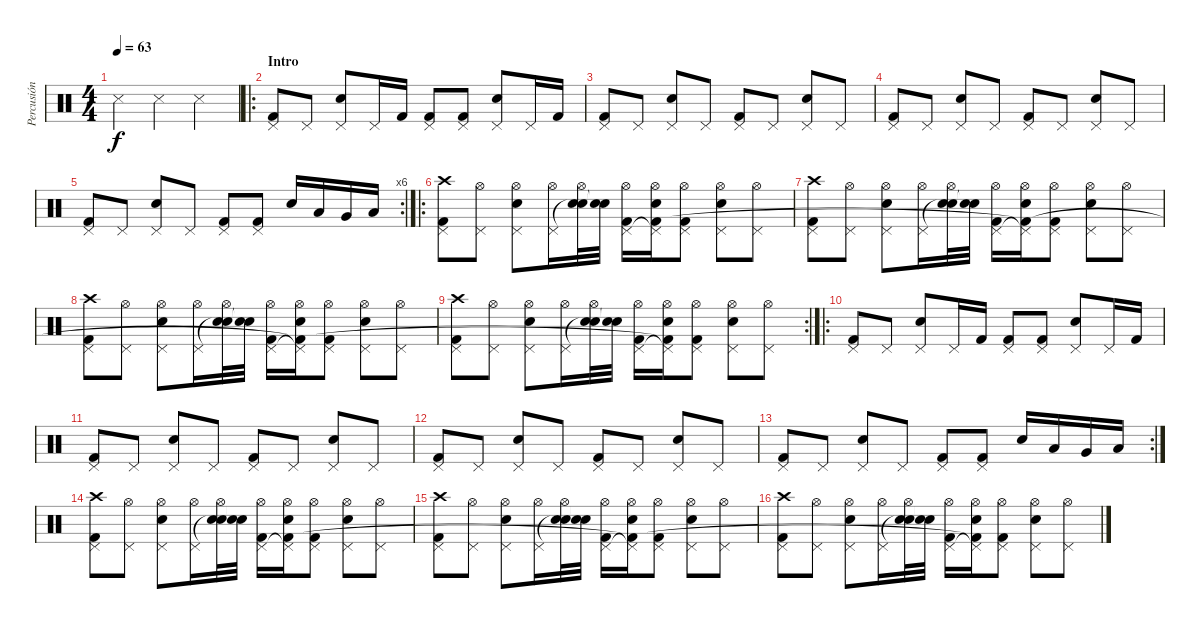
\track ("Percusión" "Percusión") {instrument percussion}
\staff {score}
\articulation defaults
\ts (4 4)
\tempo 63
\clef neutral
\ks c "Metronome (hit)".4{dy f} "Metronome (hit)".4 "Metronome (hit)".4
|
\ro
\section ("" "Intro")
("Pedal Hi-Hat (hit)" "Kick (hit) 2").8 "Pedal Hi-Hat (hit)".8 ("Pedal Hi-Hat (hit)" "Electric Snare (hit)").8 "Pedal Hi-Hat (hit)".16 "Kick (hit) 2".16 ("Pedal Hi-Hat (hit)" "Kick (hit) 2").8 ("Pedal Hi-Hat (hit)" "Kick (hit) 2").8 ("Pedal Hi-Hat (hit)" "Electric Snare (hit)").8 "Pedal Hi-Hat (hit)".16 "Kick (hit) 2".16 |
("Pedal Hi-Hat (hit)" "Kick (hit) 2").8 "Pedal Hi-Hat (hit)".8 ("Pedal Hi-Hat (hit)" "Electric Snare (hit)").8 "Pedal Hi-Hat (hit)".8 ("Pedal Hi-Hat (hit)" "Kick (hit) 2").8 "Pedal Hi-Hat (hit)".8 ("Pedal Hi-Hat (hit)" "Electric Snare (hit)").8 "Pedal Hi-Hat (hit)".8 |
("Pedal Hi-Hat (hit)" "Kick (hit) 2").8 "Pedal Hi-Hat (hit)".8 ("Pedal Hi-Hat (hit)" "Electric Snare (hit)").8 "Pedal Hi-Hat (hit)".8 ("Pedal Hi-Hat (hit)" "Kick (hit) 2").8 "Pedal Hi-Hat (hit)".8 ("Pedal Hi-Hat (hit)" "Electric Snare (hit)").8 "Pedal Hi-Hat (hit)".8 |
\rc 6
("Pedal Hi-Hat (hit)" "Kick (hit) 2").8 "Pedal Hi-Hat (hit)".8 ("Pedal Hi-Hat (hit)" "Electric Snare (hit)").8 "Pedal Hi-Hat (hit)".8 ("Pedal Hi-Hat (hit)" "Kick (hit) 2").8 ("Pedal Hi-Hat (hit)" "Kick (hit) 2").8 "Electric Snare (hit)".16 "Low Tom (hit)".16 "Very Low Tom (hit)".16 "Low Floor Tom (hit)".16 |
\ro
("Pedal Hi-Hat (hit)" "Crash high (hit)" "Kick (hit) 2").8 ("Pedal Hi-Hat (hit)" "Hi-Hat (open)").8 ("Pedal Hi-Hat (hit)" "Electric Snare (hit)" "Hi-Hat (open)").8 ("Pedal Hi-Hat (hit)" "Hi-Hat (open)").16 ("Snare (hit)"{t} "Electric Snare (hit)" "Hi-Hat (open)").32 ("Snare (hit)"{t} "Electric Snare (hit)").32 ("Pedal Hi-Hat (hit)" "Hi-Hat (open)" "Kick (hit) 2").16 ("Pedal Hi-Hat (hit)"{t} "Electric Snare (hit)" "Hi-Hat (open)" "Kick (hit) 2").16 ("Pedal Hi-Hat (hit)" "Hi-Hat (open)" "Kick (hit) 2").8 ("Pedal Hi-Hat (hit)" "Electric Snare (hit)" "Hi-Hat (open)").8 ("Pedal Hi-Hat (hit)" "Hi-Hat (open)").8 |
("Pedal Hi-Hat (hit)" "Crash high (hit)" "Kick (hit) 2").8 ("Pedal Hi-Hat (hit)" "Hi-Hat (open)").8 ("Pedal Hi-Hat (hit)" "Electric Snare (hit)" "Hi-Hat (open)").8 ("Pedal Hi-Hat (hit)" "Hi-Hat (open)").16 ("Snare (hit)"{t} "Electric Snare (hit)" "Hi-Hat (open)").32 ("Snare (hit)"{t} "Electric Snare (hit)").32 ("Pedal Hi-Hat (hit)" "Hi-Hat (open)" "Kick (hit) 2").16 ("Pedal Hi-Hat (hit)"{t} "Electric Snare (hit)" "Hi-Hat (open)" "Kick (hit) 2"{t}).16 ("Pedal Hi-Hat (hit)" "Hi-Hat (open)" "Kick (hit) 2").8 ("Pedal Hi-Hat (hit)" "Electric Snare (hit)" "Hi-Hat (open)").8 ("Pedal Hi-Hat (hit)" "Hi-Hat (open)").8 |
("Pedal Hi-Hat (hit)" "Crash high (hit)" "Kick (hit) 2").8 ("Pedal Hi-Hat (hit)" "Hi-Hat (open)").8 ("Pedal Hi-Hat (hit)" "Electric Snare (hit)" "Hi-Hat (open)").8 ("Pedal Hi-Hat (hit)" "Hi-Hat (open)").16 ("Snare (hit)"{t} "Electric Snare (hit)" "Hi-Hat (open)").32 ("Snare (hit)"{t} "Electric Snare (hit)").32 ("Pedal Hi-Hat (hit)" "Hi-Hat (open)" "Kick (hit) 2").16 ("Pedal Hi-Hat (hit)"{t} "Electric Snare (hit)" "Hi-Hat (open)" "Kick (hit) 2"{t}).16 ("Pedal Hi-Hat (hit)" "Hi-Hat (open)" "Kick (hit) 2").8 ("Pedal Hi-Hat (hit)" "Electric Snare (hit)" "Hi-Hat (open)").8 ("Pedal Hi-Hat (hit)" "Hi-Hat (open)").8 |
\rc 2
("Pedal Hi-Hat (hit)" "Crash high (hit)" "Kick (hit) 2").8 ("Pedal Hi-Hat (hit)" "Hi-Hat (open)").8 ("Pedal Hi-Hat (hit)" "Electric Snare (hit)" "Hi-Hat (open)").8 ("Pedal Hi-Hat (hit)" "Hi-Hat (open)").16 ("Snare (hit)"{t} "Electric Snare (hit)" "Hi-Hat (open)").32 ("Snare (hit)"{t} "Electric Snare (hit)").32 ("Pedal Hi-Hat (hit)" "Hi-Hat (open)" "Kick (hit) 2").16 ("Pedal Hi-Hat (hit)"{t} "Electric Snare (hit)" "Hi-Hat (open)" "Kick (hit) 2"{t}).16 ("Pedal Hi-Hat (hit)" "Hi-Hat (open)" "Kick (hit) 2").8 ("Pedal Hi-Hat (hit)" "Electric Snare (hit)" "Hi-Hat (open)").8 ("Pedal Hi-Hat (hit)" "Hi-Hat (open)").8 |
\ro
("Pedal Hi-Hat (hit)" "Kick (hit) 2").8 "Pedal Hi-Hat (hit)".8 ("Pedal Hi-Hat (hit)" "Electric Snare (hit)").8 "Pedal Hi-Hat (hit)".16 "Kick (hit) 2".16 ("Pedal Hi-Hat (hit)" "Kick (hit) 2").8 ("Pedal Hi-Hat (hit)" "Kick (hit) 2").8 ("Pedal Hi-Hat (hit)" "Electric Snare (hit)").8 "Pedal Hi-Hat (hit)".16 "Kick (hit) 2".16 |
("Pedal Hi-Hat (hit)" "Kick (hit) 2").8 "Pedal Hi-Hat (hit)".8 ("Pedal Hi-Hat (hit)" "Electric Snare (hit)").8 "Pedal Hi-Hat (hit)".8 ("Pedal Hi-Hat (hit)" "Kick (hit) 2").8 "Pedal Hi-Hat (hit)".8 ("Pedal Hi-Hat (hit)" "Electric Snare (hit)").8 "Pedal Hi-Hat (hit)".8 |
("Pedal Hi-Hat (hit)" "Kick (hit) 2").8 "Pedal Hi-Hat (hit)".8 ("Pedal Hi-Hat (hit)" "Electric Snare (hit)").8 "Pedal Hi-Hat (hit)".8 ("Pedal Hi-Hat (hit)" "Kick (hit) 2").8 "Pedal Hi-Hat (hit)".8 ("Pedal Hi-Hat (hit)" "Electric Snare (hit)").8 "Pedal Hi-Hat (hit)".8 |
\rc 2
("Pedal Hi-Hat (hit)" "Kick (hit) 2").8 "Pedal Hi-Hat (hit)".8 ("Pedal Hi-Hat (hit)" "Electric Snare (hit)").8 "Pedal Hi-Hat (hit)".8 ("Pedal Hi-Hat (hit)" "Kick (hit) 2").8 ("Pedal Hi-Hat (hit)" "Kick (hit) 2").8 "Electric Snare (hit)".16 "Low Tom (hit)".16 "Very Low Tom (hit)".16 "Low Floor Tom (hit)".16 |
("Pedal Hi-Hat (hit)" "Crash high (hit)" "Kick (hit) 2").8 ("Pedal Hi-Hat (hit)" "Hi-Hat (open)").8 ("Pedal Hi-Hat (hit)" "Electric Snare (hit)" "Hi-Hat (open)").8 ("Pedal Hi-Hat (hit)" "Hi-Hat (open)").16 ("Snare (hit)"{t} "Electric Snare (hit)" "Hi-Hat (open)").32 ("Snare (hit)"{t} "Electric Snare (hit)").32 ("Pedal Hi-Hat (hit)" "Hi-Hat (open)" "Kick (hit) 2").16 ("Pedal Hi-Hat (hit)"{t} "Electric Snare (hit)" "Hi-Hat (open)" "Kick (hit) 2").16 ("Pedal Hi-Hat (hit)" "Hi-Hat (open)" "Kick (hit) 2").8 ("Pedal Hi-Hat (hit)" "Electric Snare (hit)" "Hi-Hat (open)").8 ("Pedal Hi-Hat (hit)" "Hi-Hat (open)").8 |
("Pedal Hi-Hat (hit)" "Crash high (hit)" "Kick (hit) 2").8 ("Pedal Hi-Hat (hit)" "Hi-Hat (open)").8 ("Pedal Hi-Hat (hit)" "Electric Snare (hit)" "Hi-Hat (open)").8 ("Pedal Hi-Hat (hit)" "Hi-Hat (open)").16 ("Snare (hit)"{t} "Electric Snare (hit)" "Hi-Hat (open)").32 ("Snare (hit)"{t} "Electric Snare (hit)").32 ("Pedal Hi-Hat (hit)" "Hi-Hat (open)" "Kick (hit) 2").16 ("Pedal Hi-Hat (hit)"{t} "Electric Snare (hit)" "Hi-Hat (open)" "Kick (hit) 2"{t}).16 ("Pedal Hi-Hat (hit)" "Hi-Hat (open)" "Kick (hit) 2").8 ("Pedal Hi-Hat (hit)" "Electric Snare (hit)" "Hi-Hat (open)").8 ("Pedal Hi-Hat (hit)" "Hi-Hat (open)").8 |
("Pedal Hi-Hat (hit)" "Crash high (hit)" "Kick (hit) 2").8 ("Pedal Hi-Hat (hit)" "Hi-Hat (open)").8 ("Pedal Hi-Hat (hit)" "Electric Snare (hit)" "Hi-Hat (open)").8 ("Pedal Hi-Hat (hit)" "Hi-Hat (open)").16 ("Snare (hit)"{t} "Electric Snare (hit)" "Hi-Hat (open)").32 ("Snare (hit)"{t} "Electric Snare (hit)").32 ("Pedal Hi-Hat (hit)" "Hi-Hat (open)" "Kick (hit) 2").16 ("Pedal Hi-Hat (hit)"{t} "Electric Snare (hit)" "Hi-Hat (open)" "Kick (hit) 2"{t}).16 ("Pedal Hi-Hat (hit)" "Hi-Hat (open)" "Kick (hit) 2").8 ("Pedal Hi-Hat (hit)" "Electric Snare (hit)" "Hi-Hat (open)").8 ("Pedal Hi-Hat (hit)" "Hi-Hat (open)").8
